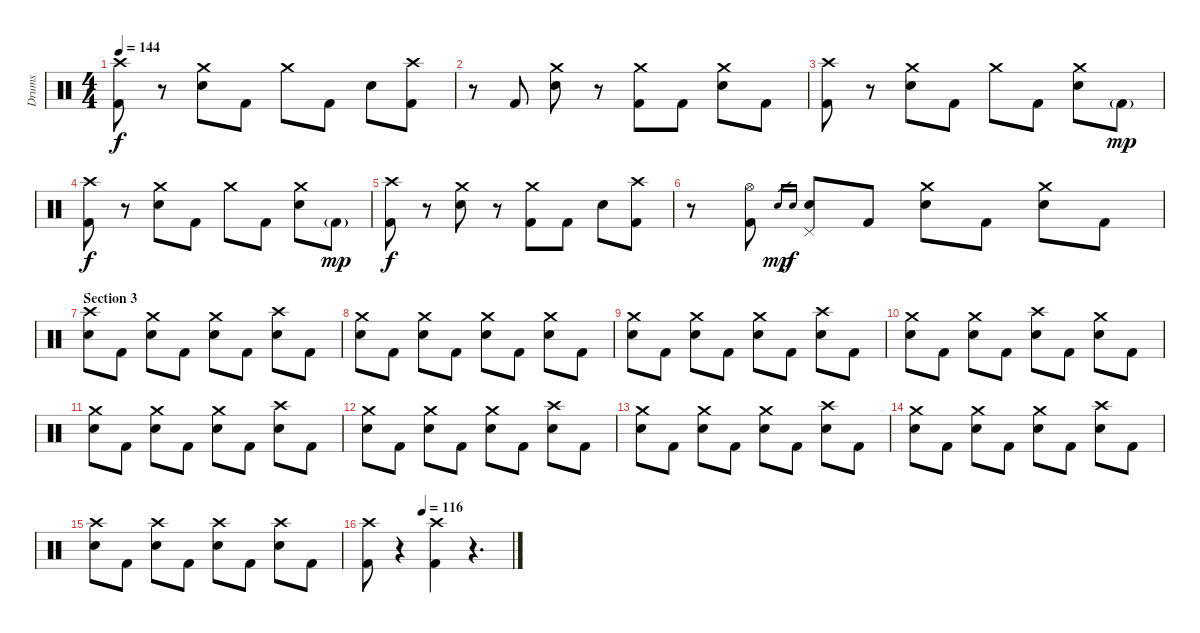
\track ("Drums" "Drums") {instrument percussion}
\staff {score}
\articulation defaults
\ts (4 4)
\tempo 144
\clef neutral
\ks c
("Crash high (hit)" "Kick (hit) 2").8{dy f} r.8 ("Crash medium (hit)" "Snare (hit) 2").8 "Kick (hit) 2".8 "Crash medium (hit)".8 "Kick (hit) 2".8 "Snare (hit) 2".8 ("Crash high (hit)" "Kick (hit) 2").8 |
r.8 "Kick (hit) 2".8 ("Crash medium (hit)" "Snare (hit) 2").8 r.8 ("Crash medium (hit)" "Kick (hit) 2").8 "Kick (hit) 2".8 ("Crash medium (hit)" "Snare (hit) 2").8 "Kick (hit) 2".8 |
("Crash high (hit)" "Kick (hit) 2").8 r.8 ("Crash medium (hit)" "Snare (hit) 2").8 "Kick (hit) 2".8 "Crash medium (hit)".8 "Kick (hit) 2".8 ("Crash medium (hit)" "Snare (hit) 2").8 "Kick (hit) 2"{g}.8{dy mp} |
("Crash high (hit)" "Kick (hit) 2").8{dy f} r.8 ("Crash medium (hit)" "Snare (hit) 2").8 "Kick (hit) 2".8 "Crash medium (hit)".8 "Kick (hit) 2".8 ("Crash medium (hit)" "Snare (hit) 2").8 "Kick (hit) 2"{g}.8{dy mp} |
("Crash high (hit)" "Kick (hit) 2").8{dy f} r.8 ("Crash medium (hit)" "Snare (hit) 2").8 r.8 ("Crash medium (hit)" "Kick (hit) 2").8 "Kick (hit) 2".8 "Snare (hit) 2".8 ("Crash high (hit)" "Kick (hit) 2").8 |
r.8 ("Hi-Hat (open)" "Kick (hit) 2").8 "Snare (hit)".16{gr dy mp} "Snare (hit) 2".16{gr dy f} ("Pedal Hi-Hat (hit)" "Snare (hit) 2").8 "Kick (hit) 2".8 ("Crash medium (hit)" "Snare (hit) 2").8 "Kick (hit) 2".8 ("Crash medium (hit)" "Snare (hit) 2").8 "Kick (hit) 2".8 |
\section ("" "Section 3")
("Crash high (hit)" "Snare (hit) 2").8 "Kick (hit) 2".8 ("Crash medium (hit)" "Snare (hit) 2").8 "Kick (hit) 2".8 ("Crash medium (hit)" "Snare (hit) 2").8 "Kick (hit) 2".8 ("Crash high (hit)" "Snare (hit) 2").8 "Kick (hit) 2".8 |
("Crash medium (hit)" "Snare (hit) 2").8 "Kick (hit) 2".8 ("Crash medium (hit)" "Snare (hit) 2").8 "Kick (hit) 2".8 ("Crash medium (hit)" "Snare (hit) 2").8 "Kick (hit) 2".8 ("Crash medium (hit)" "Snare (hit) 2").8 "Kick (hit) 2".8 |
("Crash medium (hit)" "Snare (hit) 2").8 "Kick (hit) 2".8 ("Crash medium (hit)" "Snare (hit) 2").8 "Kick (hit) 2".8 ("Crash medium (hit)" "Snare (hit) 2").8 "Kick (hit) 2".8 ("Crash high (hit)" "Snare (hit) 2").8 "Kick (hit) 2".8 |
("Crash medium (hit)" "Snare (hit) 2").8 "Kick (hit) 2".8 ("Crash medium (hit)" "Snare (hit) 2").8 "Kick (hit) 2".8 ("Crash high (hit)" "Snare (hit) 2").8 "Kick (hit) 2".8 ("Crash medium (hit)" "Snare (hit) 2").8 "Kick (hit) 2".8 |
("Crash medium (hit)" "Snare (hit) 2").8 "Kick (hit) 2".8 ("Crash medium (hit)" "Snare (hit) 2").8 "Kick (hit) 2".8 ("Crash medium (hit)" "Snare (hit) 2").8 "Kick (hit) 2".8 ("Crash high (hit)" "Snare (hit) 2").8 "Kick (hit) 2".8 |
("Crash medium (hit)" "Snare (hit) 2").8 "Kick (hit) 2".8 ("Crash medium (hit)" "Snare (hit) 2").8 "Kick (hit) 2".8 ("Crash medium (hit)" "Snare (hit) 2").8 "Kick (hit) 2".8 ("Crash high (hit)" "Snare (hit) 2").8 "Kick (hit) 2".8 |
("Crash medium (hit)" "Snare (hit) 2").8 "Kick (hit) 2".8 ("Crash medium (hit)" "Snare (hit) 2").8 "Kick (hit) 2".8 ("Crash medium (hit)" "Snare (hit) 2").8 "Kick (hit) 2".8 ("Crash high (hit)" "Snare (hit) 2").8 "Kick (hit) 2".8 |
("Crash medium (hit)" "Snare (hit) 2").8 "Kick (hit) 2".8 ("Crash medium (hit)" "Snare (hit) 2").8 "Kick (hit) 2".8 ("Crash medium (hit)" "Snare (hit) 2").8 "Kick (hit) 2".8 ("Crash high (hit)" "Snare (hit) 2").8 "Kick (hit) 2".8 |
("Crash high (hit)" "Snare (hit) 2").8 "Kick (hit) 2".8 ("Crash high (hit)" "Snare (hit) 2").8 "Kick (hit) 2".8 ("Crash high (hit)" "Snare (hit) 2").8 "Kick (hit) 2".8 ("Crash high (hit)" "Snare (hit) 2").8 "Kick (hit) 2".8 |
\tempo (116 0.375)
("Crash high (hit)" "Kick (hit) 2").8 r.4 ("Crash high (hit)" "Kick (hit) 2").4 r.4{d}
